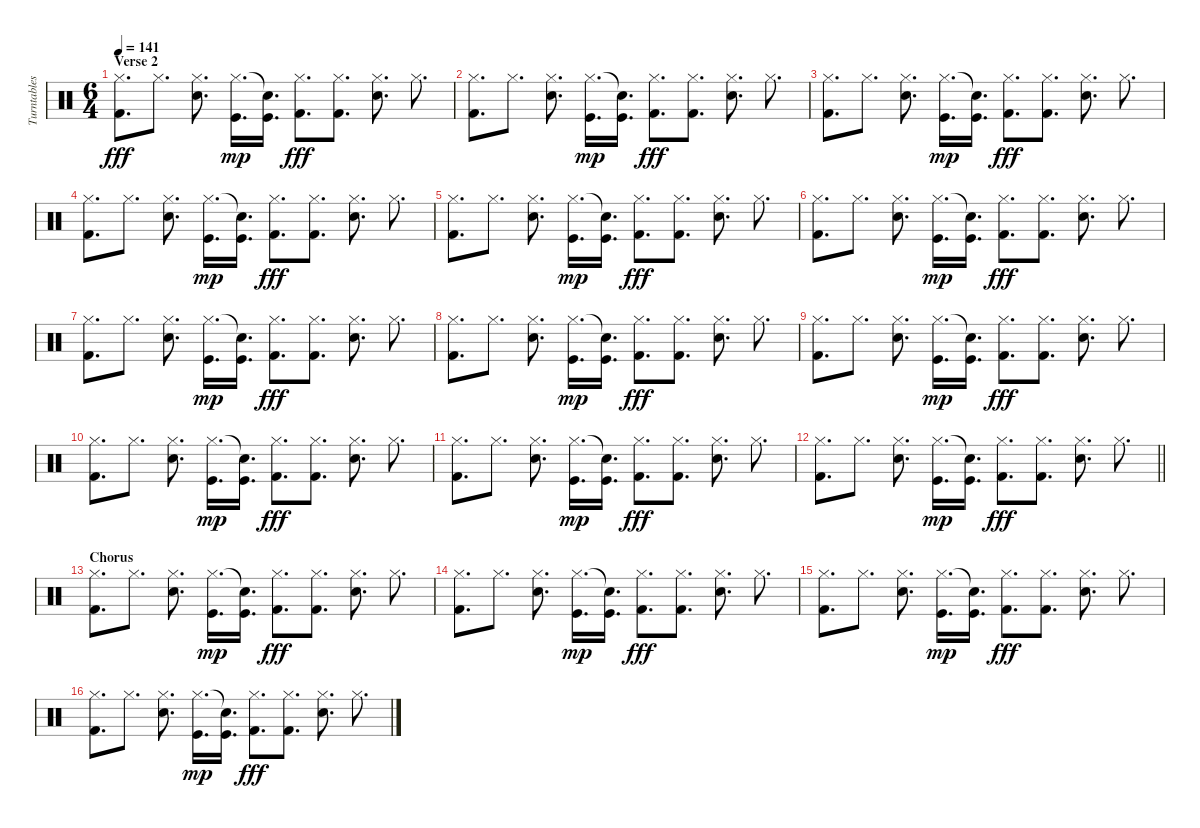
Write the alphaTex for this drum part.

\track ("Turntables" "Turntables") {instrument percussion}
\staff {score}
\articulation defaults
\ts (6 4)
\section ("" "Verse 2")
\tempo 141
\clef neutral
\ks c
("Hi-Hat (closed)" "Kick (hit) 2").8{d dy fff} "Hi-Hat (closed)".8{d} ("Hi-Hat (closed)" "Electric Snare (hit)").8{d} ("Hi-Hat (closed)" "Kick (hit)").16{d dy mp} ("Snare (hit)"{t} "Kick (hit)").16{d} ("Hi-Hat (closed)" "Kick (hit) 2").8{d dy fff} ("Hi-Hat (closed)" "Kick (hit) 2").8{d} ("Hi-Hat (closed)" "Electric Snare (hit)").8{d} "Hi-Hat (closed)".8{d} |
("Hi-Hat (closed)" "Kick (hit) 2").8{d} "Hi-Hat (closed)".8{d} ("Hi-Hat (closed)" "Electric Snare (hit)").8{d} ("Hi-Hat (closed)" "Kick (hit)").16{d dy mp} ("Snare (hit)"{t} "Kick (hit)").16{d} ("Hi-Hat (closed)" "Kick (hit) 2").8{d dy fff} ("Hi-Hat (closed)" "Kick (hit) 2").8{d} ("Hi-Hat (closed)" "Electric Snare (hit)").8{d} "Hi-Hat (closed)".8{d} |
("Hi-Hat (closed)" "Kick (hit) 2").8{d} "Hi-Hat (closed)".8{d} ("Hi-Hat (closed)" "Electric Snare (hit)").8{d} ("Hi-Hat (closed)" "Kick (hit)").16{d dy mp} ("Snare (hit)"{t} "Kick (hit)").16{d} ("Hi-Hat (closed)" "Kick (hit) 2").8{d dy fff} ("Hi-Hat (closed)" "Kick (hit) 2").8{d} ("Hi-Hat (closed)" "Electric Snare (hit)").8{d} "Hi-Hat (closed)".8{d} |
("Hi-Hat (closed)" "Kick (hit) 2").8{d} "Hi-Hat (closed)".8{d} ("Hi-Hat (closed)" "Electric Snare (hit)").8{d} ("Hi-Hat (closed)" "Kick (hit)").16{d dy mp} ("Snare (hit)"{t} "Kick (hit)").16{d} ("Hi-Hat (closed)" "Kick (hit) 2").8{d dy fff} ("Hi-Hat (closed)" "Kick (hit) 2").8{d} ("Hi-Hat (closed)" "Electric Snare (hit)").8{d} "Hi-Hat (closed)".8{d} |
("Hi-Hat (closed)" "Kick (hit) 2").8{d} "Hi-Hat (closed)".8{d} ("Hi-Hat (closed)" "Electric Snare (hit)").8{d} ("Hi-Hat (closed)" "Kick (hit)").16{d dy mp} ("Snare (hit)"{t} "Kick (hit)").16{d} ("Hi-Hat (closed)" "Kick (hit) 2").8{d dy fff} ("Hi-Hat (closed)" "Kick (hit) 2").8{d} ("Hi-Hat (closed)" "Electric Snare (hit)").8{d} "Hi-Hat (closed)".8{d} |
("Hi-Hat (closed)" "Kick (hit) 2").8{d} "Hi-Hat (closed)".8{d} ("Hi-Hat (closed)" "Electric Snare (hit)").8{d} ("Hi-Hat (closed)" "Kick (hit)").16{d dy mp} ("Snare (hit)"{t} "Kick (hit)").16{d} ("Hi-Hat (closed)" "Kick (hit) 2").8{d dy fff} ("Hi-Hat (closed)" "Kick (hit) 2").8{d} ("Hi-Hat (closed)" "Electric Snare (hit)").8{d} "Hi-Hat (closed)".8{d} |
("Hi-Hat (closed)" "Kick (hit) 2").8{d} "Hi-Hat (closed)".8{d} ("Hi-Hat (closed)" "Electric Snare (hit)").8{d} ("Hi-Hat (closed)" "Kick (hit)").16{d dy mp} ("Snare (hit)"{t} "Kick (hit)").16{d} ("Hi-Hat (closed)" "Kick (hit) 2").8{d dy fff} ("Hi-Hat (closed)" "Kick (hit) 2").8{d} ("Hi-Hat (closed)" "Electric Snare (hit)").8{d} "Hi-Hat (closed)".8{d} |
("Hi-Hat (closed)" "Kick (hit) 2").8{d} "Hi-Hat (closed)".8{d} ("Hi-Hat (closed)" "Electric Snare (hit)").8{d} ("Hi-Hat (closed)" "Kick (hit)").16{d dy mp} ("Snare (hit)"{t} "Kick (hit)").16{d} ("Hi-Hat (closed)" "Kick (hit) 2").8{d dy fff} ("Hi-Hat (closed)" "Kick (hit) 2").8{d} ("Hi-Hat (closed)" "Electric Snare (hit)").8{d} "Hi-Hat (closed)".8{d} |
("Hi-Hat (closed)" "Kick (hit) 2").8{d} "Hi-Hat (closed)".8{d} ("Hi-Hat (closed)" "Electric Snare (hit)").8{d} ("Hi-Hat (closed)" "Kick (hit)").16{d dy mp} ("Snare (hit)"{t} "Kick (hit)").16{d} ("Hi-Hat (closed)" "Kick (hit) 2").8{d dy fff} ("Hi-Hat (closed)" "Kick (hit) 2").8{d} ("Hi-Hat (closed)" "Electric Snare (hit)").8{d} "Hi-Hat (closed)".8{d} |
("Hi-Hat (closed)" "Kick (hit) 2").8{d} "Hi-Hat (closed)".8{d} ("Hi-Hat (closed)" "Electric Snare (hit)").8{d} ("Hi-Hat (closed)" "Kick (hit)").16{d dy mp} ("Snare (hit)"{t} "Kick (hit)").16{d} ("Hi-Hat (closed)" "Kick (hit) 2").8{d dy fff} ("Hi-Hat (closed)" "Kick (hit) 2").8{d} ("Hi-Hat (closed)" "Electric Snare (hit)").8{d} "Hi-Hat (closed)".8{d} |
("Hi-Hat (closed)" "Kick (hit) 2").8{d} "Hi-Hat (closed)".8{d} ("Hi-Hat (closed)" "Electric Snare (hit)").8{d} ("Hi-Hat (closed)" "Kick (hit)").16{d dy mp} ("Snare (hit)"{t} "Kick (hit)").16{d} ("Hi-Hat (closed)" "Kick (hit) 2").8{d dy fff} ("Hi-Hat (closed)" "Kick (hit) 2").8{d} ("Hi-Hat (closed)" "Electric Snare (hit)").8{d} "Hi-Hat (closed)".8{d} |
\barLineRight lightlight
("Hi-Hat (closed)" "Kick (hit) 2").8{d} "Hi-Hat (closed)".8{d} ("Hi-Hat (closed)" "Electric Snare (hit)").8{d} ("Hi-Hat (closed)" "Kick (hit)").16{d dy mp} ("Snare (hit)"{t} "Kick (hit)").16{d} ("Hi-Hat (closed)" "Kick (hit) 2").8{d dy fff} ("Hi-Hat (closed)" "Kick (hit) 2").8{d} ("Hi-Hat (closed)" "Electric Snare (hit)").8{d} "Hi-Hat (closed)".8{d} |
\section ("" "Chorus")
("Hi-Hat (closed)" "Kick (hit) 2").8{d} "Hi-Hat (closed)".8{d} ("Hi-Hat (closed)" "Electric Snare (hit)").8{d} ("Hi-Hat (closed)" "Kick (hit)").16{d dy mp} ("Snare (hit)"{t} "Kick (hit)").16{d} ("Hi-Hat (closed)" "Kick (hit) 2").8{d dy fff} ("Hi-Hat (closed)" "Kick (hit) 2").8{d} ("Hi-Hat (closed)" "Electric Snare (hit)").8{d} "Hi-Hat (closed)".8{d} |
("Hi-Hat (closed)" "Kick (hit) 2").8{d} "Hi-Hat (closed)".8{d} ("Hi-Hat (closed)" "Electric Snare (hit)").8{d} ("Hi-Hat (closed)" "Kick (hit)").16{d dy mp} ("Snare (hit)"{t} "Kick (hit)").16{d} ("Hi-Hat (closed)" "Kick (hit) 2").8{d dy fff} ("Hi-Hat (closed)" "Kick (hit) 2").8{d} ("Hi-Hat (closed)" "Electric Snare (hit)").8{d} "Hi-Hat (closed)".8{d} |
("Hi-Hat (closed)" "Kick (hit) 2").8{d} "Hi-Hat (closed)".8{d} ("Hi-Hat (closed)" "Electric Snare (hit)").8{d} ("Hi-Hat (closed)" "Kick (hit)").16{d dy mp} ("Snare (hit)"{t} "Kick (hit)").16{d} ("Hi-Hat (closed)" "Kick (hit) 2").8{d dy fff} ("Hi-Hat (closed)" "Kick (hit) 2").8{d} ("Hi-Hat (closed)" "Electric Snare (hit)").8{d} "Hi-Hat (closed)".8{d} |
("Hi-Hat (closed)" "Kick (hit) 2").8{d} "Hi-Hat (closed)".8{d} ("Hi-Hat (closed)" "Electric Snare (hit)").8{d} ("Hi-Hat (closed)" "Kick (hit)").16{d dy mp} ("Snare (hit)"{t} "Kick (hit)").16{d} ("Hi-Hat (closed)" "Kick (hit) 2").8{d dy fff} ("Hi-Hat (closed)" "Kick (hit) 2").8{d} ("Hi-Hat (closed)" "Electric Snare (hit)").8{d} "Hi-Hat (closed)".8{d}
